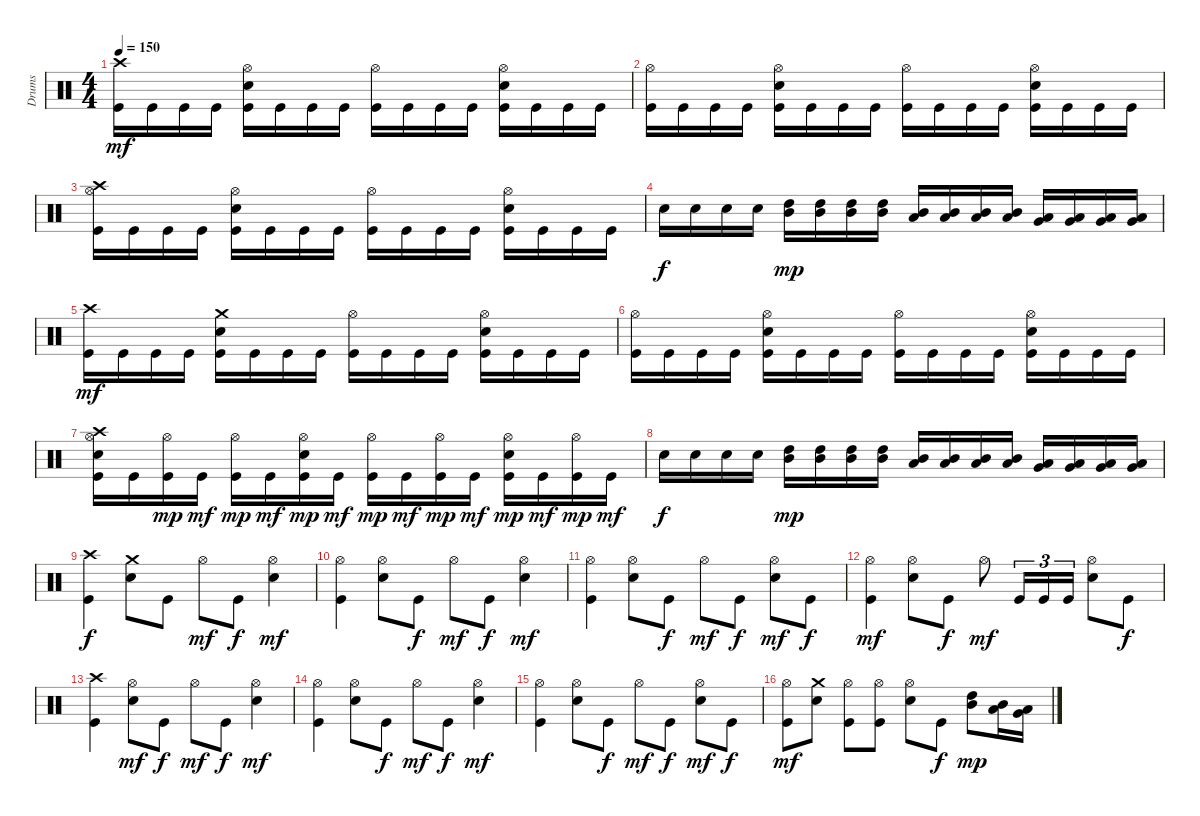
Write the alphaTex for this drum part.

\track ("Drums" "Drums") {instrument percussion}
\staff {score}
\articulation defaults
\ts (4 4)
\tempo 150
\clef neutral
\ks c
("Kick (hit)" "Crash high (hit)").16{dy mf} "Kick (hit)".16 "Kick (hit)".16 "Kick (hit)".16 ("Kick (hit)" "Electric Snare (hit)" "Hi-Hat (open)").16 "Kick (hit)".16 "Kick (hit)".16 "Kick (hit)".16 ("Kick (hit)" "Hi-Hat (open)").16 "Kick (hit)".16 "Kick (hit)".16 "Kick (hit)".16 ("Kick (hit)" "Electric Snare (hit)" "Hi-Hat (open)").16 "Kick (hit)".16 "Kick (hit)".16 "Kick (hit)".16 |
("Kick (hit)" "Hi-Hat (open)").16 "Kick (hit)".16 "Kick (hit)".16 "Kick (hit)".16 ("Kick (hit)" "Electric Snare (hit)" "Hi-Hat (open)").16 "Kick (hit)".16 "Kick (hit)".16 "Kick (hit)".16 ("Kick (hit)" "Hi-Hat (open)").16 "Kick (hit)".16 "Kick (hit)".16 "Kick (hit)".16 ("Kick (hit)" "Electric Snare (hit)" "Hi-Hat (open)").16 "Kick (hit)".16 "Kick (hit)".16 "Kick (hit)".16 |
("Kick (hit)" "Hi-Hat (open)" "Crash high (hit)").16 "Kick (hit)".16 "Kick (hit)".16 "Kick (hit)".16 ("Kick (hit)" "Electric Snare (hit)" "Hi-Hat (open)").16 "Kick (hit)".16 "Kick (hit)".16 "Kick (hit)".16 ("Kick (hit)" "Hi-Hat (open)").16 "Kick (hit)".16 "Kick (hit)".16 "Kick (hit)".16 ("Kick (hit)" "Electric Snare (hit)" "Hi-Hat (open)").16 "Kick (hit)".16 "Kick (hit)".16 "Kick (hit)".16 |
"Electric Snare (hit)".16{dy f} "Electric Snare (hit)".16 "Electric Snare (hit)".16 "Electric Snare (hit)".16 ("High Tom (hit)" "Mid Tom (hit)").16{dy mp} ("High Tom (hit)" "Mid Tom (hit)").16 ("High Tom (hit)" "Mid Tom (hit)").16 ("High Tom (hit)" "Mid Tom (hit)").16 ("Mid Tom (hit)" "Low Tom (hit)").16 ("Mid Tom (hit)" "Low Tom (hit)").16 ("Mid Tom (hit)" "Low Tom (hit)").16 ("Mid Tom (hit)" "Low Tom (hit)").16 ("Low Tom (hit)" "Very Low Tom (hit)").16 ("Low Tom (hit)" "Very Low Tom (hit)").16 ("Low Tom (hit)" "Very Low Tom (hit)").16 ("Low Tom (hit)" "Very Low Tom (hit)").16 |
("Kick (hit)" "Crash high (hit)").16{dy mf} "Kick (hit)".16 "Kick (hit)".16 "Kick (hit)".16 ("Kick (hit)" "Electric Snare (hit)" "Crash medium (hit)").16 "Kick (hit)".16 "Kick (hit)".16 "Kick (hit)".16 ("Kick (hit)" "Hi-Hat (open)").16 "Kick (hit)".16 "Kick (hit)".16 "Kick (hit)".16 ("Kick (hit)" "Electric Snare (hit)" "Hi-Hat (open)").16 "Kick (hit)".16 "Kick (hit)".16 "Kick (hit)".16 |
("Kick (hit)" "Hi-Hat (open)").16 "Kick (hit)".16 "Kick (hit)".16 "Kick (hit)".16 ("Kick (hit)" "Electric Snare (hit)" "Hi-Hat (open)").16 "Kick (hit)".16 "Kick (hit)".16 "Kick (hit)".16 ("Kick (hit)" "Hi-Hat (open)").16 "Kick (hit)".16 "Kick (hit)".16 "Kick (hit)".16 ("Kick (hit)" "Electric Snare (hit)" "Hi-Hat (open)").16 "Kick (hit)".16 "Kick (hit)".16 "Kick (hit)".16 |
("Kick (hit)" "Electric Snare (hit)" "Hi-Hat (open)" "Crash high (hit)").16 "Kick (hit)".16 ("Kick (hit)" "Hi-Hat (open)").16{dy mp} "Kick (hit)".16{dy mf} ("Kick (hit)" "Hi-Hat (open)").16{dy mp} "Kick (hit)".16{dy mf} ("Kick (hit)" "Electric Snare (hit)" "Hi-Hat (open)").16{dy mp} "Kick (hit)".16{dy mf} ("Kick (hit)" "Hi-Hat (open)").16{dy mp} "Kick (hit)".16{dy mf} ("Kick (hit)" "Hi-Hat (open)").16{dy mp} "Kick (hit)".16{dy mf} ("Kick (hit)" "Electric Snare (hit)" "Hi-Hat (open)").16{dy mp} "Kick (hit)".16{dy mf} ("Kick (hit)" "Hi-Hat (open)").16{dy mp} "Kick (hit)".16{dy mf} |
"Electric Snare (hit)".16{dy f} "Electric Snare (hit)".16 "Electric Snare (hit)".16 "Electric Snare (hit)".16 ("High Tom (hit)" "Mid Tom (hit)").16{dy mp} ("High Tom (hit)" "Mid Tom (hit)").16 ("High Tom (hit)" "Mid Tom (hit)").16 ("High Tom (hit)" "Mid Tom (hit)").16 ("Mid Tom (hit)" "Low Tom (hit)").16 ("Mid Tom (hit)" "Low Tom (hit)").16 ("Mid Tom (hit)" "Low Tom (hit)").16 ("Mid Tom (hit)" "Low Tom (hit)").16 ("Low Tom (hit)" "Very Low Tom (hit)").16 ("Low Tom (hit)" "Very Low Tom (hit)").16 ("Low Tom (hit)" "Very Low Tom (hit)").16 ("Low Tom (hit)" "Very Low Tom (hit)").16 |
("Kick (hit)" "Crash high (hit)").4{dy f} ("Electric Snare (hit)" "Crash medium (hit)").8 "Kick (hit)".8 "Hi-Hat (open)".8{dy mf} "Kick (hit)".8{dy f} ("Electric Snare (hit)" "Hi-Hat (open)").4{dy mf} |
("Kick (hit)" "Hi-Hat (open)").4 ("Electric Snare (hit)" "Hi-Hat (open)").8 "Kick (hit)".8{dy f} "Hi-Hat (open)".8{dy mf} "Kick (hit)".8{dy f} ("Electric Snare (hit)" "Hi-Hat (open)").4{dy mf} |
("Kick (hit)" "Hi-Hat (open)").4 ("Electric Snare (hit)" "Hi-Hat (open)").8 "Kick (hit)".8{dy f} "Hi-Hat (open)".8{dy mf} "Kick (hit)".8{dy f} ("Electric Snare (hit)" "Hi-Hat (open)").8{dy mf} "Kick (hit)".8{dy f} |
("Kick (hit)" "Hi-Hat (open)").4{dy mf} ("Electric Snare (hit)" "Hi-Hat (open)").8 "Kick (hit)".8{dy f} "Hi-Hat (open)".8{dy mf} "Kick (hit)".16{tu (3 2)} "Kick (hit)".16{tu (3 2)} "Kick (hit)".16{tu (3 2)} ("Electric Snare (hit)" "Hi-Hat (open)").8 "Kick (hit)".8{dy f} |
("Kick (hit)" "Crash high (hit)").4 ("Electric Snare (hit)" "Hi-Hat (open)").8{dy mf} "Kick (hit)".8{dy f} "Hi-Hat (open)".8{dy mf} "Kick (hit)".8{dy f} ("Electric Snare (hit)" "Hi-Hat (open)").4{dy mf} |
("Kick (hit)" "Hi-Hat (open)").4 ("Electric Snare (hit)" "Hi-Hat (open)").8 "Kick (hit)".8{dy f} "Hi-Hat (open)".8{dy mf} "Kick (hit)".8{dy f} ("Electric Snare (hit)" "Hi-Hat (open)").4{dy mf} |
("Kick (hit)" "Hi-Hat (open)").4 ("Electric Snare (hit)" "Hi-Hat (open)").8 "Kick (hit)".8{dy f} "Hi-Hat (open)".8{dy mf} "Kick (hit)".8{dy f} ("Electric Snare (hit)" "Hi-Hat (open)").8{dy mf} "Kick (hit)".8{dy f} |
("Kick (hit)" "Hi-Hat (open)").8{dy mf} ("Electric Snare (hit)" "Crash medium (hit)").8 ("Kick (hit)" "Hi-Hat (open)").8 ("Kick (hit)" "Hi-Hat (open)").8 ("Electric Snare (hit)" "Hi-Hat (open)").8 "Kick (hit)".8{dy f} ("Mid Tom (hit)" "High Tom (hit)").8{dy mp} ("Low Tom (hit)" "Mid Tom (hit)").16 ("Very Low Tom (hit)" "Low Tom (hit)").16
